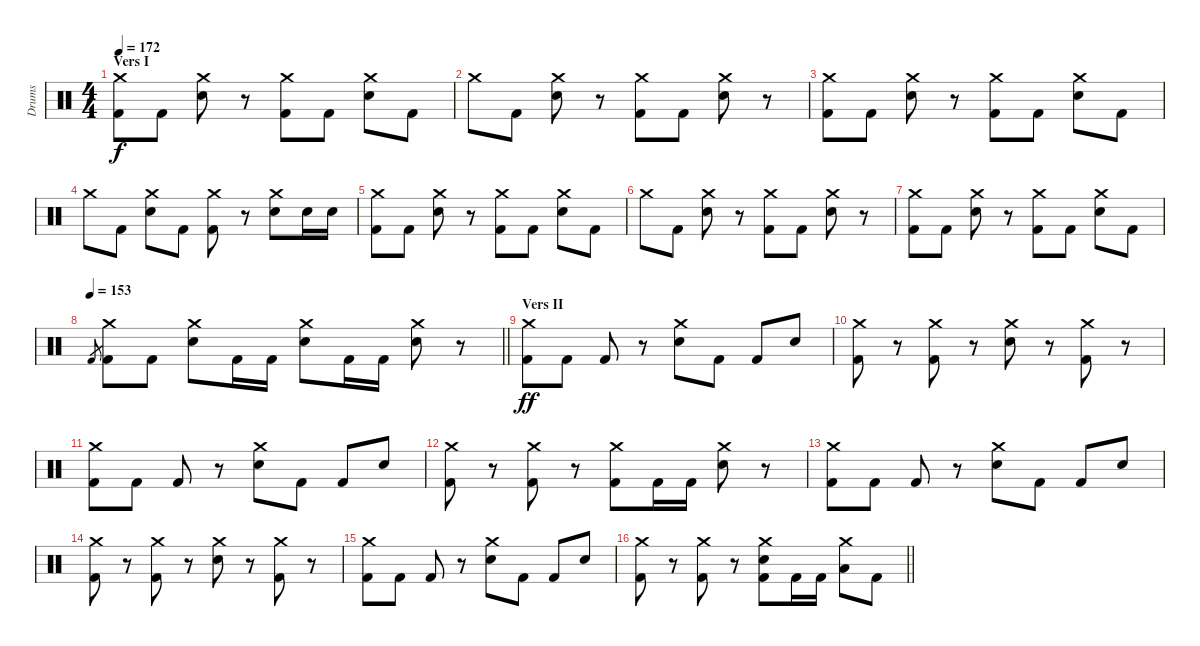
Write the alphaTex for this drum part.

\track ("Drums" "Drums") {instrument percussion}
\staff {score}
\articulation defaults
\ts (4 4)
\section ("" "Vers I")
\tempo 172
\clef neutral
\ks c
("Crash medium (hit)" "Kick (hit) 2").8{dy f} "Kick (hit) 2".8 ("Crash medium (hit)" "Electric Snare (hit)").8 r.8 ("Crash medium (hit)" "Kick (hit) 2").8 "Kick (hit) 2".8 ("Crash medium (hit)" "Electric Snare (hit)").8 "Kick (hit) 2".8 |
"Crash medium (hit)".8 "Kick (hit) 2".8 ("Crash medium (hit)" "Electric Snare (hit)").8 r.8 ("Crash medium (hit)" "Kick (hit) 2").8 "Kick (hit) 2".8 ("Crash medium (hit)" "Electric Snare (hit)").8 r.8 |
("Crash medium (hit)" "Kick (hit) 2").8 "Kick (hit) 2".8 ("Crash medium (hit)" "Electric Snare (hit)").8 r.8 ("Crash medium (hit)" "Kick (hit) 2").8 "Kick (hit) 2".8 ("Crash medium (hit)" "Electric Snare (hit)").8 "Kick (hit) 2".8 |
"Crash medium (hit)".8 "Kick (hit) 2".8 ("Crash medium (hit)" "Electric Snare (hit)").8 "Kick (hit) 2".8 ("Crash medium (hit)" "Kick (hit) 2").8 r.8 ("Crash medium (hit)" "Electric Snare (hit)").8 "Electric Snare (hit)".16 "Electric Snare (hit)".16 |
("Crash medium (hit)" "Kick (hit) 2").8 "Kick (hit) 2".8 ("Crash medium (hit)" "Electric Snare (hit)").8 r.8 ("Crash medium (hit)" "Kick (hit) 2").8 "Kick (hit) 2".8 ("Crash medium (hit)" "Electric Snare (hit)").8 "Kick (hit) 2".8 |
"Crash medium (hit)".8 "Kick (hit) 2".8 ("Crash medium (hit)" "Electric Snare (hit)").8 r.8 ("Crash medium (hit)" "Kick (hit) 2").8 "Kick (hit) 2".8 ("Crash medium (hit)" "Electric Snare (hit)").8 r.8 |
("Crash medium (hit)" "Kick (hit) 2").8 "Kick (hit) 2".8 ("Crash medium (hit)" "Electric Snare (hit)").8 r.8 ("Crash medium (hit)" "Kick (hit) 2").8 "Kick (hit) 2".8 ("Crash medium (hit)" "Electric Snare (hit)").8 "Kick (hit) 2".8 |
\tempo 153
\barLineRight lightlight "Kick (hit) 2".8{gr}
("Crash medium (hit)" "Kick (hit) 2").8 "Kick (hit) 2".8 ("Crash medium (hit)" "Electric Snare (hit)").8 "Kick (hit) 2".16 "Kick (hit) 2".16 ("Crash medium (hit)" "Electric Snare (hit)").8 "Kick (hit) 2".16 "Kick (hit) 2".16 ("Crash medium (hit)" "Electric Snare (hit)").8 r.8 |
\section ("" "Vers II")
("Crash medium (hit)" "Kick (hit) 2").8{dy ff} "Kick (hit) 2".8 "Kick (hit) 2".8 r.8 ("Crash medium (hit)" "Electric Snare (hit)").8 "Kick (hit) 2".8 "Kick (hit) 2".8 "Electric Snare (hit)".8 |
("Crash medium (hit)" "Kick (hit) 2").8 r.8 ("Crash medium (hit)" "Kick (hit) 2").8 r.8 ("Crash medium (hit)" "Electric Snare (hit)").8 r.8 ("Crash medium (hit)" "Kick (hit) 2").8 r.8 |
("Crash medium (hit)" "Kick (hit) 2").8 "Kick (hit) 2".8 "Kick (hit) 2".8 r.8 ("Crash medium (hit)" "Electric Snare (hit)").8 "Kick (hit) 2".8 "Kick (hit) 2".8 "Electric Snare (hit)".8 |
("Crash medium (hit)" "Kick (hit) 2").8 r.8 ("Crash medium (hit)" "Kick (hit) 2").8 r.8 ("Crash medium (hit)" "Kick (hit) 2").8 "Kick (hit) 2".16 "Kick (hit) 2".16 ("Crash medium (hit)" "Electric Snare (hit)").8 r.8 |
("Crash medium (hit)" "Kick (hit) 2").8 "Kick (hit) 2".8 "Kick (hit) 2".8 r.8 ("Crash medium (hit)" "Electric Snare (hit)").8 "Kick (hit) 2".8 "Kick (hit) 2".8 "Electric Snare (hit)".8 |
("Crash medium (hit)" "Kick (hit) 2").8 r.8 ("Crash medium (hit)" "Kick (hit) 2").8 r.8 ("Crash medium (hit)" "Electric Snare (hit)").8 r.8 ("Crash medium (hit)" "Kick (hit) 2").8 r.8 |
("Crash medium (hit)" "Kick (hit) 2").8 "Kick (hit) 2".8 "Kick (hit) 2".8 r.8 ("Crash medium (hit)" "Electric Snare (hit)").8 "Kick (hit) 2".8 "Kick (hit) 2".8 "Electric Snare (hit)".8 |
\barLineRight lightlight
("Crash medium (hit)" "Kick (hit) 2").8 r.8 ("Crash medium (hit)" "Kick (hit) 2").8 r.8 ("Crash medium (hit)" "Snare (hit) 2" "Kick (hit) 2").8 "Kick (hit) 2".16 "Kick (hit) 2".16 ("Crash medium (hit)" "Low Floor Tom (hit)").8 "Kick (hit) 2".8
